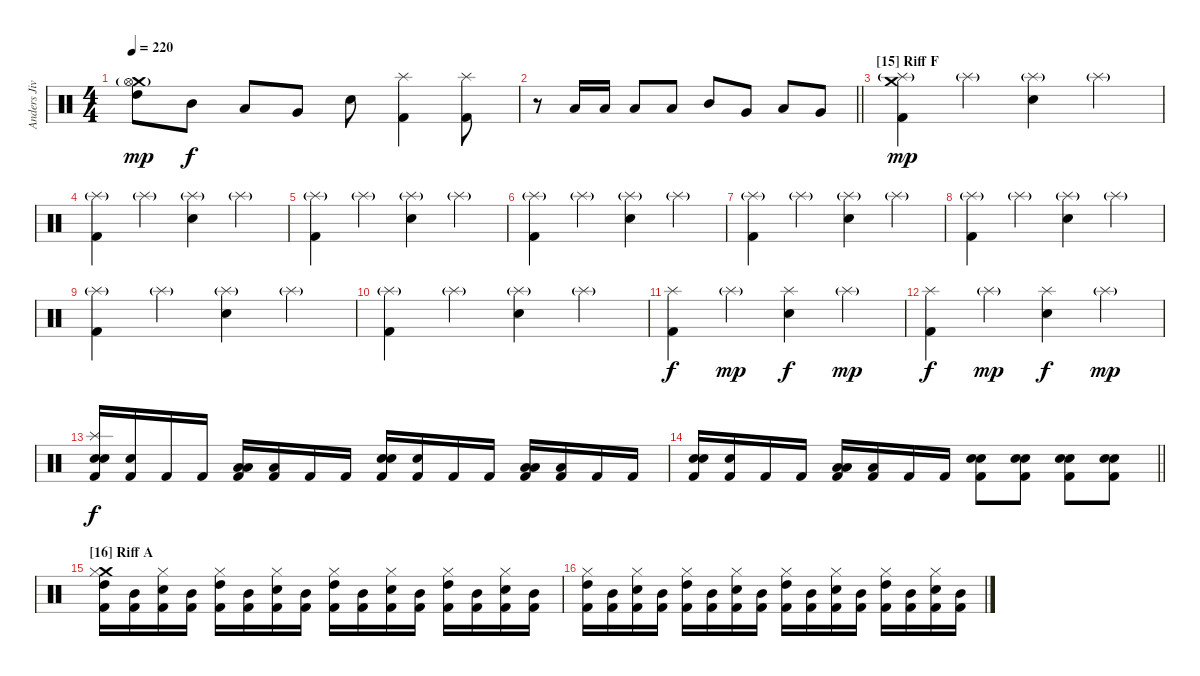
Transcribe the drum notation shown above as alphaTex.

\track ("Anders Jivarp" "Anders Jiv") {instrument percussion}
\staff {score}
\articulation defaults
\ts (4 4)
\tempo 220
\clef neutral
\ks c
("Crash medium (hit)" "Hi-Hat (open)"{g} "High Tom (hit)").8{dy mp} "Mid Tom (hit)".8{dy f} "Low Tom (hit)".8 "Very Low Tom (hit)".8 "Electric Snare (hit)".8 ("Splash (hit)" "Kick (hit) 2").4 ("Splash (hit)" "Kick (hit) 2").8 |
\barLineRight lightlight
r.8 "Low Tom (hit)".16 "Low Tom (hit)".16 "Low Tom (hit)".8 "Low Tom (hit)".8 "Mid Tom (hit)".8 "Very Low Tom (hit)".8 "Low Tom (hit)".8 "Very Low Tom (hit)".8 |
\section ("" "[15] Riff F")
("Crash medium (hit)" "Splash (hit)"{g} "Kick (hit) 2").4{dy mp} "Splash (hit)"{g}.4 ("Splash (hit)"{g} "Electric Snare (hit)").4 "Splash (hit)"{g}.4 |
("Splash (hit)"{g} "Kick (hit) 2").4 "Splash (hit)"{g}.4 ("Splash (hit)"{g} "Electric Snare (hit)").4 "Splash (hit)"{g}.4 |
("Splash (hit)"{g} "Kick (hit) 2").4 "Splash (hit)"{g}.4 ("Splash (hit)"{g} "Electric Snare (hit)").4 "Splash (hit)"{g}.4 |
("Splash (hit)"{g} "Kick (hit) 2").4 "Splash (hit)"{g}.4 ("Splash (hit)"{g} "Electric Snare (hit)").4 "Splash (hit)"{g}.4 |
("Splash (hit)"{g} "Kick (hit) 2").4 "Splash (hit)"{g}.4 ("Splash (hit)"{g} "Electric Snare (hit)").4 "Splash (hit)"{g}.4 |
("Splash (hit)"{g} "Kick (hit) 2").4 "Splash (hit)"{g}.4 ("Splash (hit)"{g} "Electric Snare (hit)").4 "Splash (hit)"{g}.4 |
("Splash (hit)"{g} "Kick (hit) 2").4 "Splash (hit)"{g}.4 ("Splash (hit)"{g} "Electric Snare (hit)").4 "Splash (hit)"{g}.4 |
("Splash (hit)"{g} "Kick (hit) 2").4 "Splash (hit)"{g}.4 ("Splash (hit)"{g} "Electric Snare (hit)").4 "Splash (hit)"{g}.4 |
("Splash (hit)" "Kick (hit) 2").4{dy f} "Splash (hit)"{g}.4{dy mp} ("Splash (hit)" "Electric Snare (hit)").4{dy f} "Splash (hit)"{g}.4{dy mp} |
("Splash (hit)" "Kick (hit) 2").4{dy f} "Splash (hit)"{g}.4{dy mp} ("Splash (hit)" "Electric Snare (hit)").4{dy f} "Splash (hit)"{g}.4{dy mp} |
("Splash (hit)" "Electric Snare (hit)" "Snare (hit) 2" "Kick (hit) 2").16{dy f} ("Snare (hit) 2" "Kick (hit) 2").16 "Kick (hit) 2".16 "Kick (hit) 2".16 ("Low Floor Tom (hit)" "Low Tom (hit)" "Kick (hit) 2").16 ("Low Tom (hit)" "Kick (hit) 2").16 "Kick (hit) 2".16 "Kick (hit) 2".16 ("Electric Snare (hit)" "Snare (hit) 2" "Kick (hit) 2").16 ("Snare (hit) 2" "Kick (hit) 2").16 "Kick (hit) 2".16 "Kick (hit) 2".16 ("Low Floor Tom (hit)" "Low Tom (hit)" "Kick (hit) 2").16 ("Low Tom (hit)" "Kick (hit) 2").16 "Kick (hit) 2".16 "Kick (hit) 2".16 |
\barLineRight lightlight
("Electric Snare (hit)" "Snare (hit) 2" "Kick (hit) 2").16 ("Snare (hit) 2" "Kick (hit) 2").16 "Kick (hit) 2".16 "Kick (hit) 2".16 ("Low Floor Tom (hit)" "Low Tom (hit)" "Kick (hit) 2").16 ("Low Tom (hit)" "Kick (hit) 2").16 "Kick (hit) 2".16 "Kick (hit) 2".16 ("Snare (hit) 2" "Electric Snare (hit)" "Kick (hit) 2").8 ("Snare (hit) 2" "Electric Snare (hit)" "Kick (hit) 2").8 ("Snare (hit) 2" "Electric Snare (hit)" "Kick (hit) 2").8 ("Snare (hit) 2" "Electric Snare (hit)" "Kick (hit) 2").8 |
\section ("" "[16] Riff A")
("Crash medium (hit)" "Hi-Hat (closed)" "High Tom (hit)" "Kick (hit) 2").16 ("Mid Tom (hit)" "Kick (hit) 2").16 ("Hi-Hat (closed)" "Electric Snare (hit)" "Kick (hit) 2").16 ("Mid Tom (hit)" "Kick (hit) 2").16 ("Hi-Hat (closed)" "High Tom (hit)" "Kick (hit) 2").16 ("Mid Tom (hit)" "Kick (hit) 2").16 ("Hi-Hat (closed)" "Electric Snare (hit)" "Kick (hit) 2").16 ("Mid Tom (hit)" "Kick (hit) 2").16 ("Hi-Hat (closed)" "High Tom (hit)" "Kick (hit) 2").16 ("Mid Tom (hit)" "Kick (hit) 2").16 ("Hi-Hat (closed)" "Electric Snare (hit)" "Kick (hit) 2").16 ("Mid Tom (hit)" "Kick (hit) 2").16 ("Hi-Hat (closed)" "High Tom (hit)" "Kick (hit) 2").16 ("Mid Tom (hit)" "Kick (hit) 2").16 ("Hi-Hat (closed)" "Electric Snare (hit)" "Kick (hit) 2").16 ("Mid Tom (hit)" "Kick (hit) 2").16 |
("Hi-Hat (closed)" "High Tom (hit)" "Kick (hit) 2").16 ("Mid Tom (hit)" "Kick (hit) 2").16 ("Hi-Hat (closed)" "Electric Snare (hit)" "Kick (hit) 2").16 ("Mid Tom (hit)" "Kick (hit) 2").16 ("Hi-Hat (closed)" "High Tom (hit)" "Kick (hit) 2").16 ("Mid Tom (hit)" "Kick (hit) 2").16 ("Hi-Hat (closed)" "Electric Snare (hit)" "Kick (hit) 2").16 ("Mid Tom (hit)" "Kick (hit) 2").16 ("Hi-Hat (closed)" "High Tom (hit)" "Kick (hit) 2").16 ("Mid Tom (hit)" "Kick (hit) 2").16 ("Hi-Hat (closed)" "Electric Snare (hit)" "Kick (hit) 2").16 ("Mid Tom (hit)" "Kick (hit) 2").16 ("Hi-Hat (closed)" "High Tom (hit)" "Kick (hit) 2").16 ("Mid Tom (hit)" "Kick (hit) 2").16 ("Hi-Hat (closed)" "Electric Snare (hit)" "Kick (hit) 2").16 ("Mid Tom (hit)" "Kick (hit) 2").16
